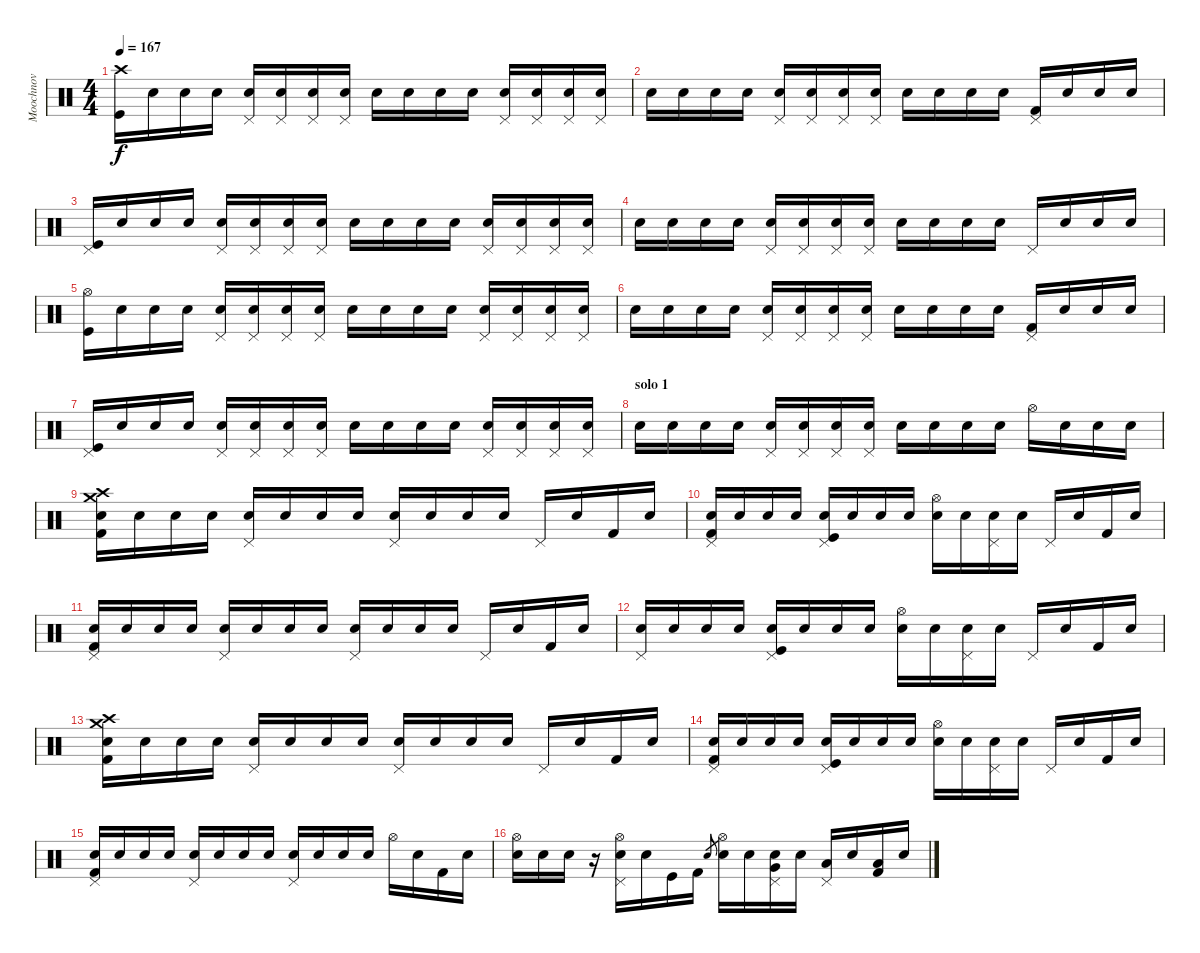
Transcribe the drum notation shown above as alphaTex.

\track ("Moochnov" "Moochnov") {instrument percussion}
\staff {score}
\articulation defaults
\ts (4 4)
\tempo 167
\clef neutral
\ks c
("Kick (hit)" "Crash high (hit)").16{dy f} "Snare (hit)"{x}.16 "Snare (hit)"{x}.16 "Snare (hit)"{x}.16 ("Snare (hit)"{x} "Pedal Hi-Hat (hit)").16 ("Snare (hit)"{x} "Pedal Hi-Hat (hit)").16 ("Snare (hit)"{x} "Pedal Hi-Hat (hit)").16 ("Snare (hit)"{x} "Pedal Hi-Hat (hit)").16 "Snare (hit)"{x}.16 "Snare (hit)"{x}.16 "Snare (hit)"{x}.16 "Snare (hit)"{x}.16 ("Snare (hit)"{x} "Pedal Hi-Hat (hit)").16 ("Snare (hit)"{x} "Pedal Hi-Hat (hit)").16 ("Snare (hit)"{x} "Pedal Hi-Hat (hit)").16 ("Snare (hit)"{x} "Pedal Hi-Hat (hit)").16 |
"Snare (hit)"{x}.16 "Snare (hit)"{x}.16 "Snare (hit)"{x}.16 "Snare (hit)"{x}.16 ("Snare (hit)"{x} "Pedal Hi-Hat (hit)").16 ("Snare (hit)"{x} "Pedal Hi-Hat (hit)").16 ("Snare (hit)"{x} "Pedal Hi-Hat (hit)").16 ("Snare (hit)"{x} "Pedal Hi-Hat (hit)").16 "Snare (hit)"{x}.16 "Snare (hit)"{x}.16 "Snare (hit)"{x}.16 "Snare (hit)"{x}.16 ("Kick (hit) 2" "Pedal Hi-Hat (hit)").16 "Snare (hit)"{x}.16 "Snare (hit)"{x}.16 "Snare (hit)"{x}.16 |
("Kick (hit)" "Pedal Hi-Hat (hit)").16 "Snare (hit)"{x}.16 "Snare (hit)"{x}.16 "Snare (hit)"{x}.16 ("Snare (hit)"{x} "Pedal Hi-Hat (hit)").16 ("Snare (hit)"{x} "Pedal Hi-Hat (hit)").16 ("Snare (hit)"{x} "Pedal Hi-Hat (hit)").16 ("Snare (hit)"{x} "Pedal Hi-Hat (hit)").16 "Snare (hit)"{x}.16 "Snare (hit)"{x}.16 "Snare (hit)"{x}.16 "Snare (hit)"{x}.16 ("Snare (hit)"{x} "Pedal Hi-Hat (hit)").16 ("Snare (hit)"{x} "Pedal Hi-Hat (hit)").16 ("Snare (hit)"{x} "Pedal Hi-Hat (hit)").16 ("Snare (hit)"{x} "Pedal Hi-Hat (hit)").16 |
"Snare (hit)"{x}.16 "Snare (hit)"{x}.16 "Snare (hit)"{x}.16 "Snare (hit)"{x}.16 ("Snare (hit)"{x} "Pedal Hi-Hat (hit)").16 ("Snare (hit)"{x} "Pedal Hi-Hat (hit)").16 ("Snare (hit)"{x} "Pedal Hi-Hat (hit)").16 ("Snare (hit)"{x} "Pedal Hi-Hat (hit)").16 "Snare (hit)"{x}.16 "Snare (hit)"{x}.16 "Snare (hit)"{x}.16 "Snare (hit)"{x}.16 "Pedal Hi-Hat (hit)".16 "Snare (hit)"{x}.16 "Snare (hit)"{x}.16 "Snare (hit)"{x}.16 |
("Kick (hit)" "Hi-Hat (open)").16 "Snare (hit)"{x}.16 "Snare (hit)"{x}.16 "Snare (hit)"{x}.16 ("Snare (hit)"{x} "Pedal Hi-Hat (hit)").16 ("Snare (hit)"{x} "Pedal Hi-Hat (hit)").16 ("Snare (hit)"{x} "Pedal Hi-Hat (hit)").16 ("Snare (hit)"{x} "Pedal Hi-Hat (hit)").16 "Snare (hit)"{x}.16 "Snare (hit)"{x}.16 "Snare (hit)"{x}.16 "Snare (hit)"{x}.16 ("Snare (hit)"{x} "Pedal Hi-Hat (hit)").16 ("Snare (hit)"{x} "Pedal Hi-Hat (hit)").16 ("Snare (hit)"{x} "Pedal Hi-Hat (hit)").16 ("Snare (hit)"{x} "Pedal Hi-Hat (hit)").16 |
"Snare (hit)"{x}.16 "Snare (hit)"{x}.16 "Snare (hit)"{x}.16 "Snare (hit)"{x}.16 ("Snare (hit)"{x} "Pedal Hi-Hat (hit)").16 ("Snare (hit)"{x} "Pedal Hi-Hat (hit)").16 ("Snare (hit)"{x} "Pedal Hi-Hat (hit)").16 ("Snare (hit)"{x} "Pedal Hi-Hat (hit)").16 "Snare (hit)"{x}.16 "Snare (hit)"{x}.16 "Snare (hit)"{x}.16 "Snare (hit)"{x}.16 ("Kick (hit) 2" "Pedal Hi-Hat (hit)").16 "Snare (hit)"{x}.16 "Snare (hit)"{x}.16 "Snare (hit)"{x}.16 |
("Kick (hit)" "Pedal Hi-Hat (hit)").16 "Snare (hit)"{x}.16 "Snare (hit)"{x}.16 "Snare (hit)"{x}.16 ("Snare (hit)"{x} "Pedal Hi-Hat (hit)").16 ("Snare (hit)"{x} "Pedal Hi-Hat (hit)").16 ("Snare (hit)"{x} "Pedal Hi-Hat (hit)").16 ("Snare (hit)"{x} "Pedal Hi-Hat (hit)").16 "Snare (hit)"{x}.16 "Snare (hit)"{x}.16 "Snare (hit)"{x}.16 "Snare (hit)"{x}.16 ("Snare (hit)"{x} "Pedal Hi-Hat (hit)").16 ("Snare (hit)"{x} "Pedal Hi-Hat (hit)").16 ("Snare (hit)"{x} "Pedal Hi-Hat (hit)").16 ("Snare (hit)"{x} "Pedal Hi-Hat (hit)").16 |
\section ("" "solo 1")
"Snare (hit)"{x}.16 "Snare (hit)"{x}.16 "Snare (hit)"{x}.16 "Snare (hit)"{x}.16 ("Snare (hit)"{x} "Pedal Hi-Hat (hit)").16 ("Snare (hit)"{x} "Pedal Hi-Hat (hit)").16 ("Snare (hit)"{x} "Pedal Hi-Hat (hit)").16 ("Snare (hit)"{x} "Pedal Hi-Hat (hit)").16 "Snare (hit)"{x}.16 "Snare (hit)"{x}.16 "Snare (hit)"{x}.16 "Snare (hit)"{x}.16 "Hi-Hat (open)".16 "Snare (hit)"{x}.16 "Snare (hit)"{x}.16 "Snare (hit)"{x}.16 |
("Snare (hit)"{x} "Crash medium (hit)" "Crash high (hit)" "Kick (hit) 2").16 "Snare (hit)"{x}.16 "Snare (hit)"{x}.16 "Snare (hit)"{x}.16 ("Snare (hit)"{x} "Pedal Hi-Hat (hit)").16 "Snare (hit)"{x}.16 "Snare (hit)"{x}.16 "Snare (hit)"{x}.16 ("Snare (hit) 2" "Pedal Hi-Hat (hit)").16 "Snare (hit)"{x}.16 "Snare (hit)"{x}.16 "Snare (hit)"{x}.16 "Pedal Hi-Hat (hit)".16 "Snare (hit)"{x}.16 "Kick (hit) 2".16 "Snare (hit)"{x}.16 |
("Snare (hit)"{x} "Pedal Hi-Hat (hit)" "Kick (hit) 2").16 "Snare (hit)"{x}.16 "Snare (hit)"{x}.16 "Snare (hit)"{x}.16 ("Snare (hit)"{x} "Pedal Hi-Hat (hit)" "Kick (hit)").16 "Snare (hit)"{x}.16 "Snare (hit)"{x}.16 "Snare (hit)"{x}.16 ("Snare (hit) 2" "Hi-Hat (open)").16 "Snare (hit)"{x}.16 ("Snare (hit)"{x} "Pedal Hi-Hat (hit)").16 "Snare (hit)"{x}.16 "Pedal Hi-Hat (hit)".16 "Snare (hit)"{x}.16 "Kick (hit) 2".16 "Snare (hit)"{x}.16 |
("Snare (hit)"{x} "Pedal Hi-Hat (hit)" "Kick (hit) 2").16 "Snare (hit)"{x}.16 "Snare (hit)"{x}.16 "Snare (hit)"{x}.16 ("Snare (hit)"{x} "Pedal Hi-Hat (hit)").16 "Snare (hit)"{x}.16 "Snare (hit)"{x}.16 "Snare (hit)"{x}.16 ("Snare (hit) 2" "Pedal Hi-Hat (hit)").16 "Snare (hit)"{x}.16 "Snare (hit)"{x}.16 "Snare (hit)"{x}.16 "Pedal Hi-Hat (hit)".16 "Snare (hit)"{x}.16 "Kick (hit) 2".16 "Snare (hit)"{x}.16 |
("Snare (hit)"{x} "Pedal Hi-Hat (hit)").16 "Snare (hit)"{x}.16 "Snare (hit)"{x}.16 "Snare (hit)"{x}.16 ("Snare (hit)"{x} "Pedal Hi-Hat (hit)" "Kick (hit)").16 "Snare (hit)"{x}.16 "Snare (hit)"{x}.16 "Snare (hit)"{x}.16 ("Snare (hit) 2" "Hi-Hat (open)").16 "Snare (hit)"{x}.16 ("Snare (hit)"{x} "Pedal Hi-Hat (hit)").16 "Snare (hit)"{x}.16 "Pedal Hi-Hat (hit)".16 "Snare (hit)"{x}.16 "Kick (hit) 2".16 "Snare (hit)"{x}.16 |
("Snare (hit)"{x} "Crash medium (hit)" "Crash high (hit)" "Kick (hit) 2").16 "Snare (hit)"{x}.16 "Snare (hit)"{x}.16 "Snare (hit)"{x}.16 ("Snare (hit)"{x} "Pedal Hi-Hat (hit)").16 "Snare (hit)"{x}.16 "Snare (hit)"{x}.16 "Snare (hit)"{x}.16 ("Snare (hit) 2" "Pedal Hi-Hat (hit)").16 "Snare (hit)"{x}.16 "Snare (hit)"{x}.16 "Snare (hit)"{x}.16 "Pedal Hi-Hat (hit)".16 "Snare (hit)"{x}.16 "Kick (hit) 2".16 "Snare (hit)"{x}.16 |
("Snare (hit)"{x} "Pedal Hi-Hat (hit)" "Kick (hit) 2").16 "Snare (hit)"{x}.16 "Snare (hit)"{x}.16 "Snare (hit)"{x}.16 ("Snare (hit)"{x} "Pedal Hi-Hat (hit)" "Kick (hit)").16 "Snare (hit)"{x}.16 "Snare (hit)"{x}.16 "Snare (hit)"{x}.16 ("Snare (hit) 2" "Hi-Hat (open)").16 "Snare (hit)"{x}.16 ("Snare (hit)"{x} "Pedal Hi-Hat (hit)").16 "Snare (hit)"{x}.16 "Pedal Hi-Hat (hit)".16 "Snare (hit)"{x}.16 "Kick (hit) 2".16 "Snare (hit)"{x}.16 |
("Snare (hit)"{x} "Pedal Hi-Hat (hit)" "Kick (hit) 2").16 "Snare (hit)"{x}.16 "Snare (hit)"{x}.16 "Snare (hit)"{x}.16 ("Snare (hit)"{x} "Pedal Hi-Hat (hit)").16 "Snare (hit)"{x}.16 "Snare (hit)"{x}.16 "Snare (hit)"{x}.16 ("Snare (hit) 2" "Pedal Hi-Hat (hit)").16 "Snare (hit)"{x}.16 "Snare (hit)"{x}.16 "Snare (hit)"{x}.16 "Hi-Hat (open)".16 "Snare (hit)"{x}.16 "Kick (hit) 2".16 "Snare (hit)"{x}.16 |
("Snare (hit)"{x} "Hi-Hat (open)").16 "Snare (hit)"{x}.16 "Snare (hit) 2".16 r.16 ("Snare (hit)"{x} "Hi-Hat (open)" "Pedal Hi-Hat (hit)").16 "Snare (hit)"{x}.16 "Kick (hit)".16 "Kick (hit) 2".16 "Snare (hit) 2".8{gr} ("Snare (hit) 2" "Hi-Hat (open)").16 "Snare (hit)"{x}.16 ("Snare (hit)"{x} "Very Low Tom (hit)" "Pedal Hi-Hat (hit)").16 "Snare (hit)"{x}.16 ("Low Floor Tom (hit)" "Pedal Hi-Hat (hit)").16 "Snare (hit)"{x}.16 ("Kick (hit) 2" "Low Floor Tom (hit)").16 "Snare (hit)"{x}.16
